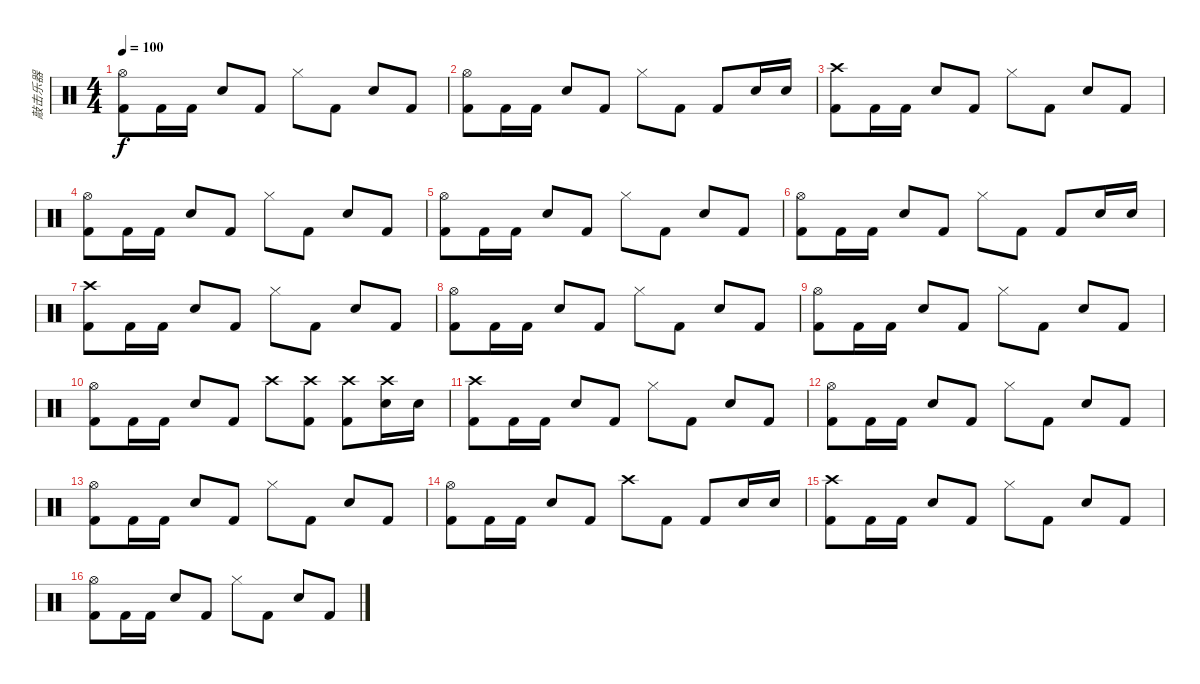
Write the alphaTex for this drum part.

\track ("敲击乐器" "敲击乐器") {instrument percussion}
\staff {score}
\articulation defaults
\ts (4 4)
\tempo 100
\clef neutral
\ks c
("Kick (hit) 2" "Hi-Hat (open)").8{dy f} "Kick (hit) 2".16 "Kick (hit) 2".16 "Metronome (bell)".8 "Kick (hit) 2".8 "Hi-Hat (closed)".8 "Kick (hit) 2".8 "Metronome (bell)".8 "Kick (hit) 2".8 |
("Kick (hit) 2" "Hi-Hat (open)").8 "Kick (hit) 2".16 "Kick (hit) 2".16 "Metronome (bell)".8 "Kick (hit) 2".8 "Hi-Hat (closed)".8 "Kick (hit) 2".8 "Kick (hit) 2".8 "Metronome (bell)".16 "Metronome (bell)".16 |
("Kick (hit) 2" "Crash high (hit)").8 "Kick (hit) 2".16 "Kick (hit) 2".16 "Metronome (bell)".8 "Kick (hit) 2".8 "Hi-Hat (closed)".8 "Kick (hit) 2".8 "Metronome (bell)".8 "Kick (hit) 2".8 |
("Kick (hit) 2" "Hi-Hat (open)").8 "Kick (hit) 2".16 "Kick (hit) 2".16 "Metronome (bell)".8 "Kick (hit) 2".8 "Hi-Hat (closed)".8 "Kick (hit) 2".8 "Metronome (bell)".8 "Kick (hit) 2".8 |
("Kick (hit) 2" "Hi-Hat (open)").8 "Kick (hit) 2".16 "Kick (hit) 2".16 "Metronome (bell)".8 "Kick (hit) 2".8 "Hi-Hat (closed)".8 "Kick (hit) 2".8 "Metronome (bell)".8 "Kick (hit) 2".8 |
("Kick (hit) 2" "Hi-Hat (open)").8 "Kick (hit) 2".16 "Kick (hit) 2".16 "Metronome (bell)".8 "Kick (hit) 2".8 "Hi-Hat (closed)".8 "Kick (hit) 2".8 "Kick (hit) 2".8 "Metronome (bell)".16 "Metronome (bell)".16 |
("Kick (hit) 2" "Crash high (hit)").8 "Kick (hit) 2".16 "Kick (hit) 2".16 "Metronome (bell)".8 "Kick (hit) 2".8 "Hi-Hat (closed)".8 "Kick (hit) 2".8 "Metronome (bell)".8 "Kick (hit) 2".8 |
("Kick (hit) 2" "Hi-Hat (open)").8 "Kick (hit) 2".16 "Kick (hit) 2".16 "Metronome (bell)".8 "Kick (hit) 2".8 "Hi-Hat (closed)".8 "Kick (hit) 2".8 "Metronome (bell)".8 "Kick (hit) 2".8 |
("Kick (hit) 2" "Hi-Hat (open)").8 "Kick (hit) 2".16 "Kick (hit) 2".16 "Metronome (bell)".8 "Kick (hit) 2".8 "Hi-Hat (closed)".8 "Kick (hit) 2".8 "Metronome (bell)".8 "Kick (hit) 2".8 |
("Kick (hit) 2" "Hi-Hat (open)").8 "Kick (hit) 2".16 "Kick (hit) 2".16 "Metronome (bell)".8 "Kick (hit) 2".8 "Crash high (hit)".8 ("Kick (hit) 2" "Crash high (hit)").8 ("Kick (hit) 2" "Crash high (hit)").8 ("Metronome (bell)" "Crash high (hit)").16 "Metronome (bell)".16 |
("Kick (hit) 2" "Crash high (hit)").8 "Kick (hit) 2".16 "Kick (hit) 2".16 "Metronome (bell)".8 "Kick (hit) 2".8 "Hi-Hat (closed)".8 "Kick (hit) 2".8 "Metronome (bell)".8 "Kick (hit) 2".8 |
("Kick (hit) 2" "Hi-Hat (open)").8 "Kick (hit) 2".16 "Kick (hit) 2".16 "Metronome (bell)".8 "Kick (hit) 2".8 "Hi-Hat (closed)".8 "Kick (hit) 2".8 "Metronome (bell)".8 "Kick (hit) 2".8 |
("Kick (hit) 2" "Hi-Hat (open)").8 "Kick (hit) 2".16 "Kick (hit) 2".16 "Metronome (bell)".8 "Kick (hit) 2".8 "Hi-Hat (closed)".8 "Kick (hit) 2".8 "Metronome (bell)".8 "Kick (hit) 2".8 |
("Kick (hit) 2" "Hi-Hat (open)").8 "Kick (hit) 2".16 "Kick (hit) 2".16 "Metronome (bell)".8 "Kick (hit) 2".8 "Crash high (hit)".8 "Kick (hit) 2".8 "Kick (hit) 2".8 "Metronome (bell)".16 "Metronome (bell)".16 |
("Kick (hit) 2" "Crash high (hit)").8 "Kick (hit) 2".16 "Kick (hit) 2".16 "Metronome (bell)".8 "Kick (hit) 2".8 "Hi-Hat (closed)".8 "Kick (hit) 2".8 "Metronome (bell)".8 "Kick (hit) 2".8 |
("Kick (hit) 2" "Hi-Hat (open)").8 "Kick (hit) 2".16 "Kick (hit) 2".16 "Metronome (bell)".8 "Kick (hit) 2".8 "Hi-Hat (closed)".8 "Kick (hit) 2".8 "Metronome (bell)".8 "Kick (hit) 2".8
